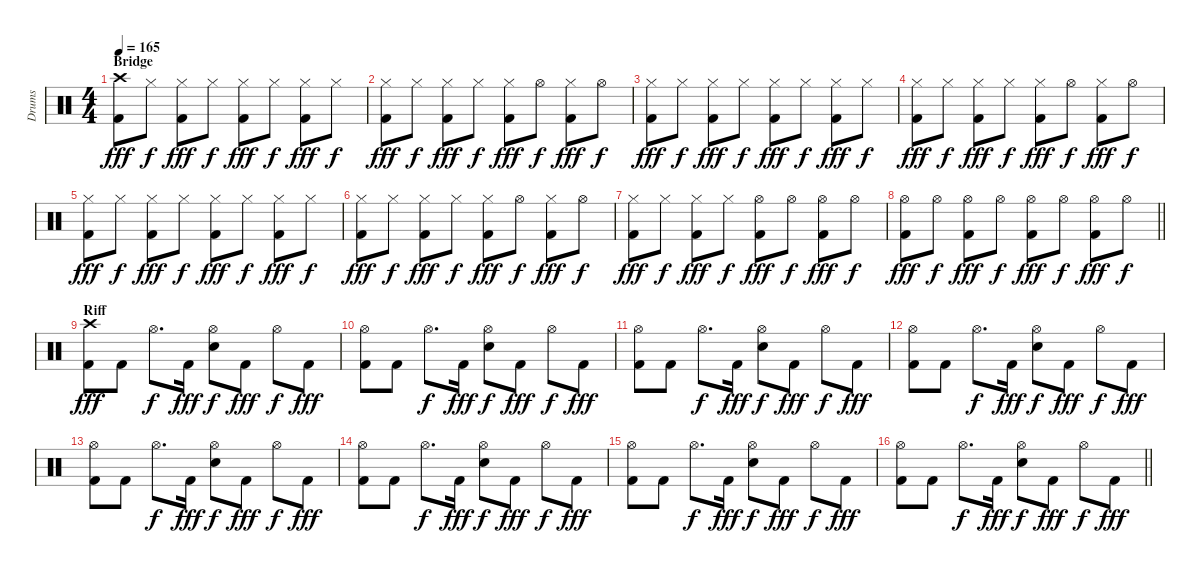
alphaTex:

\track ("Drums" "Drums") {instrument percussion}
\staff {score}
\articulation defaults
\ts (4 4)
\section ("" "Bridge")
\tempo 165
\clef neutral
\ks c
("Crash high (hit)" "Kick (hit) 2").8{dy fff} "Hi-Hat (closed)".8{dy f} ("Hi-Hat (closed)" "Kick (hit) 2").8{dy fff} "Hi-Hat (closed)".8{dy f} ("Hi-Hat (closed)" "Kick (hit) 2").8{dy fff} "Hi-Hat (closed)".8{dy f} ("Hi-Hat (closed)" "Kick (hit) 2").8{dy fff} "Hi-Hat (closed)".8{dy f} |
("Hi-Hat (closed)" "Kick (hit) 2").8{dy fff} "Hi-Hat (closed)".8{dy f} ("Hi-Hat (closed)" "Kick (hit) 2").8{dy fff} "Hi-Hat (closed)".8{dy f} ("Hi-Hat (closed)" "Kick (hit) 2").8{dy fff} "Hi-Hat (open)".8{dy f} ("Hi-Hat (closed)" "Kick (hit) 2").8{dy fff} "Hi-Hat (open)".8{dy f} |
("Hi-Hat (closed)" "Kick (hit) 2").8{dy fff} "Hi-Hat (closed)".8{dy f} ("Hi-Hat (closed)" "Kick (hit) 2").8{dy fff} "Hi-Hat (closed)".8{dy f} ("Hi-Hat (closed)" "Kick (hit) 2").8{dy fff} "Hi-Hat (closed)".8{dy f} ("Hi-Hat (closed)" "Kick (hit) 2").8{dy fff} "Hi-Hat (closed)".8{dy f} |
("Hi-Hat (closed)" "Kick (hit) 2").8{dy fff} "Hi-Hat (closed)".8{dy f} ("Hi-Hat (closed)" "Kick (hit) 2").8{dy fff} "Hi-Hat (closed)".8{dy f} ("Hi-Hat (closed)" "Kick (hit) 2").8{dy fff} "Hi-Hat (open)".8{dy f} ("Hi-Hat (closed)" "Kick (hit) 2").8{dy fff} "Hi-Hat (open)".8{dy f} |
("Hi-Hat (closed)" "Kick (hit) 2").8{dy fff} "Hi-Hat (closed)".8{dy f} ("Hi-Hat (closed)" "Kick (hit) 2").8{dy fff} "Hi-Hat (closed)".8{dy f} ("Hi-Hat (closed)" "Kick (hit) 2").8{dy fff} "Hi-Hat (closed)".8{dy f} ("Hi-Hat (closed)" "Kick (hit) 2").8{dy fff} "Hi-Hat (closed)".8{dy f} |
("Hi-Hat (closed)" "Kick (hit) 2").8{dy fff} "Hi-Hat (closed)".8{dy f} ("Hi-Hat (closed)" "Kick (hit) 2").8{dy fff} "Hi-Hat (closed)".8{dy f} ("Hi-Hat (closed)" "Kick (hit) 2").8{dy fff} "Hi-Hat (open)".8{dy f} ("Hi-Hat (closed)" "Kick (hit) 2").8{dy fff} "Hi-Hat (open)".8{dy f} |
("Hi-Hat (closed)" "Kick (hit) 2").8{dy fff} "Hi-Hat (closed)".8{dy f} ("Hi-Hat (closed)" "Kick (hit) 2").8{dy fff} "Hi-Hat (closed)".8{dy f} ("Hi-Hat (open)" "Kick (hit) 2").8{dy fff} "Hi-Hat (open)".8{dy f} ("Hi-Hat (open)" "Kick (hit) 2").8{dy fff} "Hi-Hat (open)".8{dy f} |
\barLineRight lightlight
("Hi-Hat (open)" "Kick (hit) 2").8{dy fff} "Hi-Hat (open)".8{dy f} ("Hi-Hat (open)" "Kick (hit) 2").8{dy fff} "Hi-Hat (open)".8{dy f} ("Hi-Hat (open)" "Kick (hit) 2").8{dy fff} "Hi-Hat (open)".8{dy f} ("Hi-Hat (open)" "Kick (hit) 2").8{dy fff} "Hi-Hat (open)".8{dy f} |
\section ("" "Riff")
("Crash high (hit)" "Kick (hit) 2").8{dy fff} "Kick (hit) 2".8 "Hi-Hat (open)".8{d dy f} "Kick (hit) 2".16{dy fff} ("Hi-Hat (open)" "Snare (hit) 2").8{dy f} "Kick (hit) 2".8{dy fff} "Hi-Hat (open)".8{dy f} "Kick (hit) 2".8{dy fff} |
("Hi-Hat (open)" "Kick (hit) 2").8 "Kick (hit) 2".8 "Hi-Hat (open)".8{d dy f} "Kick (hit) 2".16{dy fff} ("Hi-Hat (open)" "Snare (hit) 2").8{dy f} "Kick (hit) 2".8{dy fff} "Hi-Hat (open)".8{dy f} "Kick (hit) 2".8{dy fff} |
("Hi-Hat (open)" "Kick (hit) 2").8 "Kick (hit) 2".8 "Hi-Hat (open)".8{d dy f} "Kick (hit) 2".16{dy fff} ("Hi-Hat (open)" "Snare (hit) 2").8{dy f} "Kick (hit) 2".8{dy fff} "Hi-Hat (open)".8{dy f} "Kick (hit) 2".8{dy fff} |
("Hi-Hat (open)" "Kick (hit) 2").8 "Kick (hit) 2".8 "Hi-Hat (open)".8{d dy f} "Kick (hit) 2".16{dy fff} ("Hi-Hat (open)" "Snare (hit) 2").8{dy f} "Kick (hit) 2".8{dy fff} "Hi-Hat (open)".8{dy f} "Kick (hit) 2".8{dy fff} |
("Hi-Hat (open)" "Kick (hit) 2").8 "Kick (hit) 2".8 "Hi-Hat (open)".8{d dy f} "Kick (hit) 2".16{dy fff} ("Hi-Hat (open)" "Snare (hit) 2").8{dy f} "Kick (hit) 2".8{dy fff} "Hi-Hat (open)".8{dy f} "Kick (hit) 2".8{dy fff} |
("Hi-Hat (open)" "Kick (hit) 2").8 "Kick (hit) 2".8 "Hi-Hat (open)".8{d dy f} "Kick (hit) 2".16{dy fff} ("Hi-Hat (open)" "Snare (hit) 2").8{dy f} "Kick (hit) 2".8{dy fff} "Hi-Hat (open)".8{dy f} "Kick (hit) 2".8{dy fff} |
("Hi-Hat (open)" "Kick (hit) 2").8 "Kick (hit) 2".8 "Hi-Hat (open)".8{d dy f} "Kick (hit) 2".16{dy fff} ("Hi-Hat (open)" "Snare (hit) 2").8{dy f} "Kick (hit) 2".8{dy fff} "Hi-Hat (open)".8{dy f} "Kick (hit) 2".8{dy fff} |
\barLineRight lightlight
("Hi-Hat (open)" "Kick (hit) 2").8 "Kick (hit) 2".8 "Hi-Hat (open)".8{d dy f} "Kick (hit) 2".16{dy fff} ("Hi-Hat (open)" "Snare (hit) 2").8{dy f} "Kick (hit) 2".8{dy fff} "Hi-Hat (open)".8{dy f} "Kick (hit) 2".8{dy fff}
